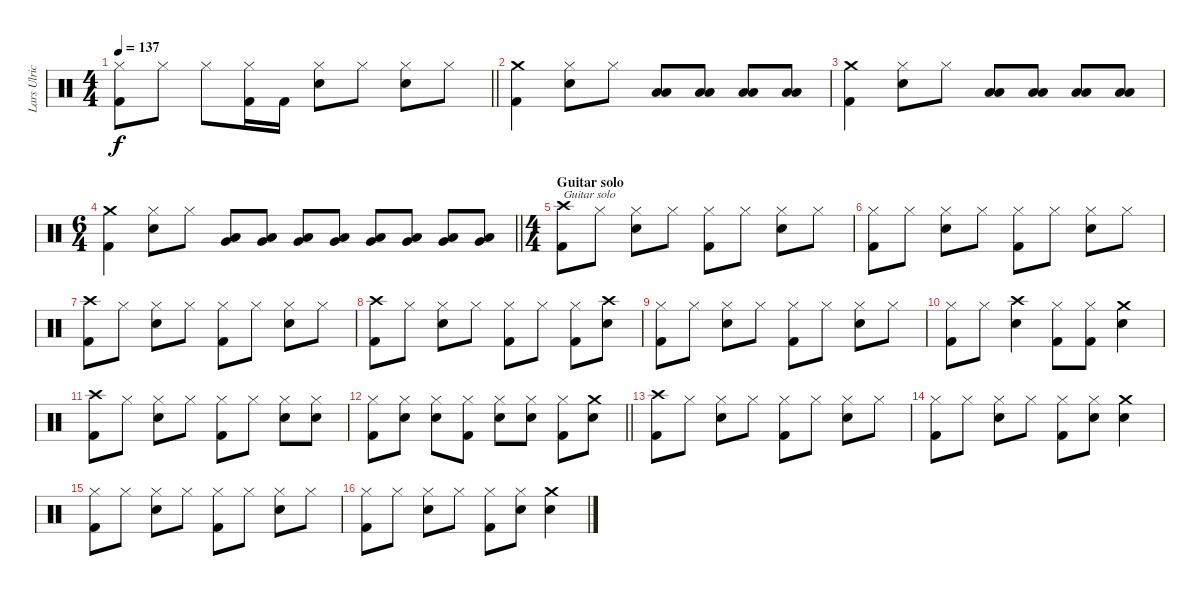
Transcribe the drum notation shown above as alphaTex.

\track ("Lars Ulrich" "Lars Ulric") {instrument percussion}
\staff {score}
\articulation defaults
\ts (4 4)
\tempo 137
\clef neutral
\barLineRight lightlight
\ks c
("Kick (hit) 2" "Hi-Hat (closed)").8{dy f} "Hi-Hat (closed)".8 "Hi-Hat (closed)".8 ("Kick (hit) 2" "Hi-Hat (closed)").16 "Kick (hit) 2".16 ("Snare (hit) 2" "Hi-Hat (closed)").8 "Hi-Hat (closed)".8 ("Snare (hit) 2" "Hi-Hat (closed)").8 "Hi-Hat (closed)".8 |
("Kick (hit) 2" "Crash medium (hit)").4 ("Snare (hit) 2" "Hi-Hat (closed)").8 "Hi-Hat (closed)".8 ("Low Tom (hit)" "Low Floor Tom (hit)").8 ("Low Tom (hit)" "Low Floor Tom (hit)").8 ("Low Tom (hit)" "Low Floor Tom (hit)").8 ("Low Tom (hit)" "Low Floor Tom (hit)").8 |
("Kick (hit) 2" "Crash medium (hit)").4 ("Snare (hit) 2" "Hi-Hat (closed)").8 "Hi-Hat (closed)".8 ("Low Tom (hit)" "Low Floor Tom (hit)").8 ("Low Tom (hit)" "Low Floor Tom (hit)").8 ("Low Tom (hit)" "Low Floor Tom (hit)").8 ("Low Tom (hit)" "Low Floor Tom (hit)").8 |
\ts (6 4)
\barLineRight lightlight
("Kick (hit) 2" "Crash medium (hit)").4 ("Snare (hit) 2" "Hi-Hat (closed)").8 "Hi-Hat (closed)".8 ("Very Low Tom (hit)" "Low Floor Tom (hit)").8 ("Very Low Tom (hit)" "Low Floor Tom (hit)").8 ("Very Low Tom (hit)" "Low Floor Tom (hit)").8 ("Very Low Tom (hit)" "Low Floor Tom (hit)").8 ("Very Low Tom (hit)" "Low Floor Tom (hit)").8 ("Very Low Tom (hit)" "Low Floor Tom (hit)").8 ("Very Low Tom (hit)" "Low Floor Tom (hit)").8 ("Very Low Tom (hit)" "Low Floor Tom (hit)").8 |
\ts (4 4)
\section ("" "Guitar solo")
("Kick (hit) 2" "Crash high (hit)").8{txt "Guitar solo"} "Hi-Hat (closed)".8 ("Snare (hit) 2" "Hi-Hat (closed)").8 "Hi-Hat (closed)".8 ("Kick (hit) 2" "Hi-Hat (closed)").8 "Hi-Hat (closed)".8 ("Snare (hit) 2" "Hi-Hat (closed)").8 "Hi-Hat (closed)".8 |
("Kick (hit) 2" "Hi-Hat (closed)").8 "Hi-Hat (closed)".8 ("Snare (hit) 2" "Hi-Hat (closed)").8 "Hi-Hat (closed)".8 ("Kick (hit) 2" "Hi-Hat (closed)").8 "Hi-Hat (closed)".8 ("Snare (hit) 2" "Hi-Hat (closed)").8 "Hi-Hat (closed)".8 |
("Kick (hit) 2" "Crash high (hit)").8 "Hi-Hat (closed)".8 ("Snare (hit) 2" "Hi-Hat (closed)").8 "Hi-Hat (closed)".8 ("Kick (hit) 2" "Hi-Hat (closed)").8 "Hi-Hat (closed)".8 ("Snare (hit) 2" "Hi-Hat (closed)").8 "Hi-Hat (closed)".8 |
("Kick (hit) 2" "Crash high (hit)").8 "Hi-Hat (closed)".8 ("Snare (hit) 2" "Hi-Hat (closed)").8 "Hi-Hat (closed)".8 ("Kick (hit) 2" "Hi-Hat (closed)").8 "Hi-Hat (closed)".8 ("Kick (hit) 2" "Hi-Hat (closed)").8 ("Snare (hit) 2" "Crash high (hit)").8 |
("Kick (hit) 2" "Hi-Hat (closed)").8 "Hi-Hat (closed)".8 ("Snare (hit) 2" "Hi-Hat (closed)").8 "Hi-Hat (closed)".8 ("Kick (hit) 2" "Hi-Hat (closed)").8 "Hi-Hat (closed)".8 ("Snare (hit) 2" "Hi-Hat (closed)").8 "Hi-Hat (closed)".8 |
("Kick (hit) 2" "Hi-Hat (closed)").8 "Hi-Hat (closed)".8 ("Snare (hit) 2" "Crash high (hit)").4 ("Kick (hit) 2" "Hi-Hat (closed)").8 ("Kick (hit) 2" "Hi-Hat (closed)").8 ("Snare (hit) 2" "Crash medium (hit)").4 |
("Kick (hit) 2" "Crash high (hit)").8 "Hi-Hat (closed)".8 ("Snare (hit) 2" "Hi-Hat (closed)").8 "Hi-Hat (closed)".8 ("Kick (hit) 2" "Hi-Hat (closed)").8 "Hi-Hat (closed)".8 ("Snare (hit) 2" "Hi-Hat (closed)").8 ("Snare (hit) 2" "Hi-Hat (closed)").8 |
\barLineRight lightlight
("Kick (hit) 2" "Hi-Hat (closed)").8 ("Snare (hit) 2" "Hi-Hat (closed)").8 ("Snare (hit) 2" "Hi-Hat (closed)").8 ("Kick (hit) 2" "Hi-Hat (closed)").8 ("Snare (hit) 2" "Hi-Hat (closed)").8 ("Snare (hit) 2" "Hi-Hat (closed)").8 ("Kick (hit) 2" "Hi-Hat (closed)").8 ("Snare (hit) 2" "Crash medium (hit)").8 |
("Kick (hit) 2" "Crash high (hit)").8 "Hi-Hat (closed)".8 ("Snare (hit) 2" "Hi-Hat (closed)").8 "Hi-Hat (closed)".8 ("Kick (hit) 2" "Hi-Hat (closed)").8 "Hi-Hat (closed)".8 ("Snare (hit) 2" "Hi-Hat (closed)").8 "Hi-Hat (closed)".8 |
("Kick (hit) 2" "Hi-Hat (closed)").8 "Hi-Hat (closed)".8 ("Snare (hit) 2" "Hi-Hat (closed)").8 "Hi-Hat (closed)".8 ("Kick (hit) 2" "Hi-Hat (closed)").8 ("Snare (hit) 2" "Hi-Hat (closed)").8 ("Snare (hit) 2" "Crash medium (hit)").4 |
("Kick (hit) 2" "Hi-Hat (closed)").8 "Hi-Hat (closed)".8 ("Snare (hit) 2" "Hi-Hat (closed)").8 "Hi-Hat (closed)".8 ("Kick (hit) 2" "Hi-Hat (closed)").8 "Hi-Hat (closed)".8 ("Snare (hit) 2" "Hi-Hat (closed)").8 "Hi-Hat (closed)".8 |
("Kick (hit) 2" "Hi-Hat (closed)").8 "Hi-Hat (closed)".8 ("Snare (hit) 2" "Hi-Hat (closed)").8 "Hi-Hat (closed)".8 ("Kick (hit) 2" "Hi-Hat (closed)").8 ("Snare (hit) 2" "Hi-Hat (closed)").8 ("Snare (hit) 2" "Crash medium (hit)").4
